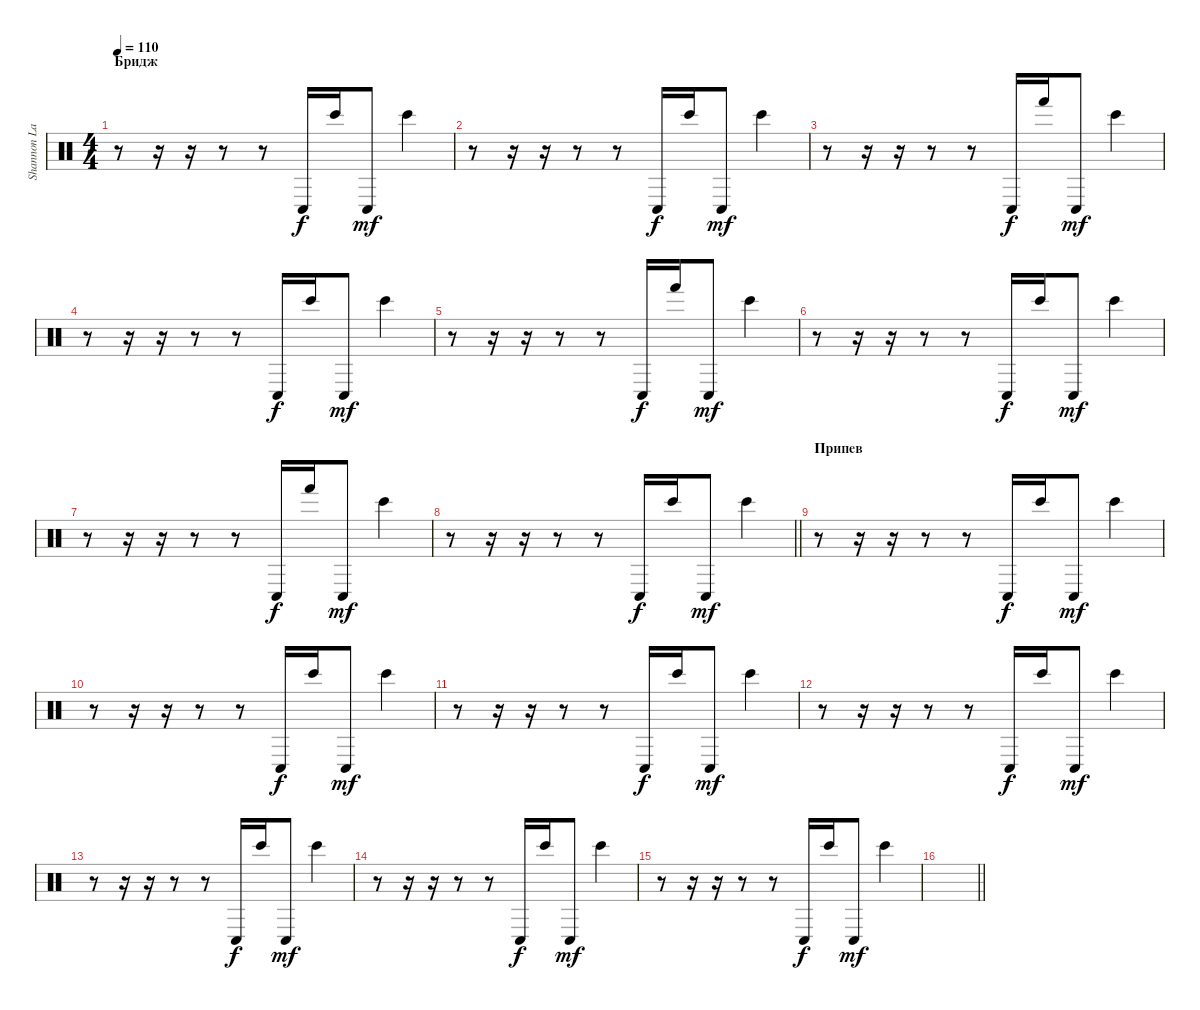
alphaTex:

\track ("Shannon Larkin [Percussion 2]" "Shannon La") {instrument percussion}
\staff {score}
\articulation defaults
\ts (4 4)
\section ("" "Бридж")
\tempo 110
\clef neutral
\ks c
r.8{dy mf} r.16 r.16 r.8 r.8 "Conga low (hit)".16{dy f} "Bongo High (hit)".16 "Conga low (hit)".8{dy mf} "Bongo High (hit)".4 |
r.8 r.16 r.16 r.8 r.8 "Conga low (hit)".16{dy f} "Bongo High (hit)".16 "Conga low (hit)".8{dy mf} "Bongo High (hit)".4 |
r.8 r.16 r.16 r.8 r.8 "Conga low (hit)".16{dy f} "Hand (hit)".16 "Conga low (hit)".8{dy mf} "Bongo High (hit)".4 |
r.8 r.16 r.16 r.8 r.8 "Conga low (hit)".16{dy f} "Bongo High (hit)".16 "Conga low (hit)".8{dy mf} "Bongo High (hit)".4 |
r.8 r.16 r.16 r.8 r.8 "Conga low (hit)".16{dy f} "Hand (hit)".16 "Conga low (hit)".8{dy mf} "Bongo High (hit)".4 |
r.8 r.16 r.16 r.8 r.8 "Conga low (hit)".16{dy f} "Bongo High (hit)".16 "Conga low (hit)".8{dy mf} "Bongo High (hit)".4 |
r.8 r.16 r.16 r.8 r.8 "Conga low (hit)".16{dy f} "Hand (hit)".16 "Conga low (hit)".8{dy mf} "Bongo High (hit)".4 |
\barLineRight lightlight
r.8 r.16 r.16 r.8 r.8 "Conga low (hit)".16{dy f} "Bongo High (hit)".16 "Conga low (hit)".8{dy mf} "Bongo High (hit)".4 |
\section ("" "Припев")
r.8 r.16 r.16 r.8 r.8 "Conga low (hit)".16{dy f} "Bongo High (hit)".16 "Conga low (hit)".8{dy mf} "Bongo High (hit)".4 |
r.8 r.16 r.16 r.8 r.8 "Conga low (hit)".16{dy f} "Bongo High (hit)".16 "Conga low (hit)".8{dy mf} "Bongo High (hit)".4 |
r.8 r.16 r.16 r.8 r.8 "Conga low (hit)".16{dy f} "Bongo High (hit)".16 "Conga low (hit)".8{dy mf} "Bongo High (hit)".4 |
r.8 r.16 r.16 r.8 r.8 "Conga low (hit)".16{dy f} "Bongo High (hit)".16 "Conga low (hit)".8{dy mf} "Bongo High (hit)".4 |
r.8 r.16 r.16 r.8 r.8 "Conga low (hit)".16{dy f} "Bongo High (hit)".16 "Conga low (hit)".8{dy mf} "Bongo High (hit)".4 |
r.8 r.16 r.16 r.8 r.8 "Conga low (hit)".16{dy f} "Bongo High (hit)".16 "Conga low (hit)".8{dy mf} "Bongo High (hit)".4 |
r.8 r.16 r.16 r.8 r.8 "Conga low (hit)".16{dy f} "Bongo High (hit)".16 "Conga low (hit)".8{dy mf} "Bongo High (hit)".4 |
\barLineRight lightlight
